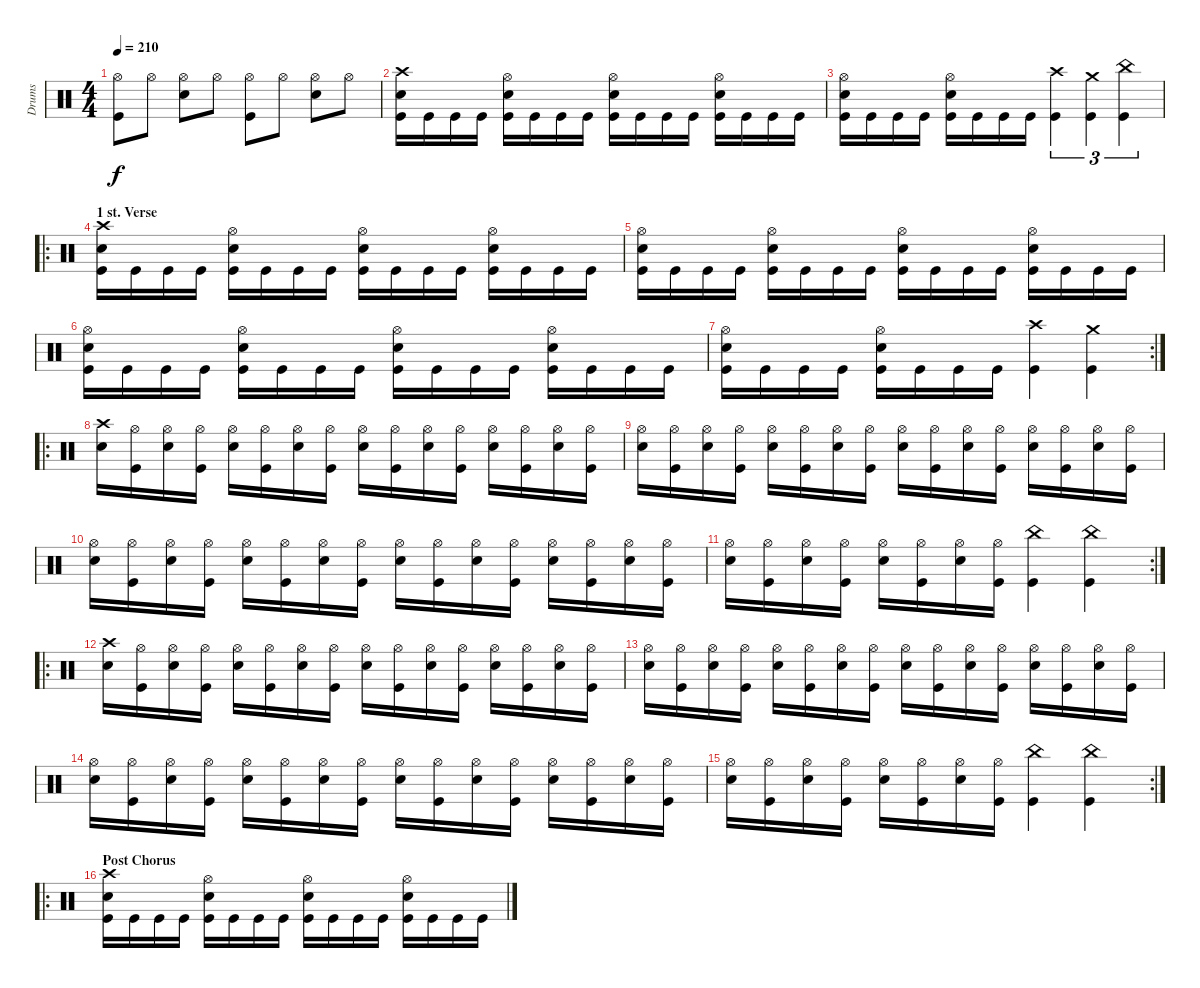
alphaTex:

\track ("Drums" "Drums") {instrument percussion}
\staff {score}
\articulation defaults
\ts (4 4)
\tempo 210
\clef neutral
\ks c
("Hi-Hat (open)" "Kick (hit)").8{dy f} "Hi-Hat (open)".8 ("Hi-Hat (open)" "Snare (hit) 2").8 "Hi-Hat (open)".8 ("Hi-Hat (open)" "Kick (hit)").8 "Hi-Hat (open)".8 ("Hi-Hat (open)" "Snare (hit) 2").8 "Hi-Hat (open)".8 |
("Crash high (hit)" "Snare (hit) 2" "Kick (hit)").16 "Kick (hit)".16 "Kick (hit)".16 "Kick (hit)".16 ("Hi-Hat (open)" "Snare (hit) 2" "Kick (hit)").16 "Kick (hit)".16 "Kick (hit)".16 "Kick (hit)".16 ("Hi-Hat (open)" "Snare (hit) 2" "Kick (hit)").16 "Kick (hit)".16 "Kick (hit)".16 "Kick (hit)".16 ("Hi-Hat (open)" "Snare (hit) 2" "Kick (hit)").16 "Kick (hit)".16 "Kick (hit)".16 "Kick (hit)".16 |
("Hi-Hat (open)" "Snare (hit) 2" "Kick (hit)").16 "Kick (hit)".16 "Kick (hit)".16 "Kick (hit)".16 ("Hi-Hat (open)" "Snare (hit) 2" "Kick (hit)").16 "Kick (hit)".16 "Kick (hit)".16 "Kick (hit)".16 ("Crash high (hit)" "Kick (hit)").4{tu (3 2)} ("Crash medium (hit)" "Kick (hit)").4{tu (3 2)} ("China (hit)" "Kick (hit)").4{tu (3 2)} |
\ro
\section ("" "1 st. Verse")
("Crash high (hit)" "Snare (hit) 2" "Kick (hit)").16 "Kick (hit)".16 "Kick (hit)".16 "Kick (hit)".16 ("Hi-Hat (open)" "Snare (hit) 2" "Kick (hit)").16 "Kick (hit)".16 "Kick (hit)".16 "Kick (hit)".16 ("Hi-Hat (open)" "Snare (hit) 2" "Kick (hit)").16 "Kick (hit)".16 "Kick (hit)".16 "Kick (hit)".16 ("Hi-Hat (open)" "Snare (hit) 2" "Kick (hit)").16 "Kick (hit)".16 "Kick (hit)".16 "Kick (hit)".16 |
("Hi-Hat (open)" "Snare (hit) 2" "Kick (hit)").16 "Kick (hit)".16 "Kick (hit)".16 "Kick (hit)".16 ("Hi-Hat (open)" "Snare (hit) 2" "Kick (hit)").16 "Kick (hit)".16 "Kick (hit)".16 "Kick (hit)".16 ("Hi-Hat (open)" "Snare (hit) 2" "Kick (hit)").16 "Kick (hit)".16 "Kick (hit)".16 "Kick (hit)".16 ("Hi-Hat (open)" "Snare (hit) 2" "Kick (hit)").16 "Kick (hit)".16 "Kick (hit)".16 "Kick (hit)".16 |
("Hi-Hat (open)" "Snare (hit) 2" "Kick (hit)").16 "Kick (hit)".16 "Kick (hit)".16 "Kick (hit)".16 ("Hi-Hat (open)" "Snare (hit) 2" "Kick (hit)").16 "Kick (hit)".16 "Kick (hit)".16 "Kick (hit)".16 ("Hi-Hat (open)" "Snare (hit) 2" "Kick (hit)").16 "Kick (hit)".16 "Kick (hit)".16 "Kick (hit)".16 ("Hi-Hat (open)" "Snare (hit) 2" "Kick (hit)").16 "Kick (hit)".16 "Kick (hit)".16 "Kick (hit)".16 |
\rc 2
("Hi-Hat (open)" "Snare (hit) 2" "Kick (hit)").16 "Kick (hit)".16 "Kick (hit)".16 "Kick (hit)".16 ("Hi-Hat (open)" "Snare (hit) 2" "Kick (hit)").16 "Kick (hit)".16 "Kick (hit)".16 "Kick (hit)".16 ("Crash high (hit)" "Kick (hit)").4 ("Crash medium (hit)" "Kick (hit)").4 |
\ro
("Crash high (hit)" "Snare (hit) 2").16 ("Hi-Hat (open)" "Kick (hit)").16 ("Hi-Hat (open)" "Snare (hit) 2").16 ("Hi-Hat (open)" "Kick (hit)").16 ("Hi-Hat (open)" "Snare (hit) 2").16 ("Hi-Hat (open)" "Kick (hit)").16 ("Hi-Hat (open)" "Snare (hit) 2").16 ("Hi-Hat (open)" "Kick (hit)").16 ("Hi-Hat (open)" "Snare (hit) 2").16 ("Hi-Hat (open)" "Kick (hit)").16 ("Hi-Hat (open)" "Snare (hit) 2").16 ("Hi-Hat (open)" "Kick (hit)").16 ("Hi-Hat (open)" "Snare (hit) 2").16 ("Hi-Hat (open)" "Kick (hit)").16 ("Hi-Hat (open)" "Snare (hit) 2").16 ("Hi-Hat (open)" "Kick (hit)").16 |
("Hi-Hat (open)" "Snare (hit) 2").16 ("Hi-Hat (open)" "Kick (hit)").16 ("Hi-Hat (open)" "Snare (hit) 2").16 ("Hi-Hat (open)" "Kick (hit)").16 ("Hi-Hat (open)" "Snare (hit) 2").16 ("Hi-Hat (open)" "Kick (hit)").16 ("Hi-Hat (open)" "Snare (hit) 2").16 ("Hi-Hat (open)" "Kick (hit)").16 ("Hi-Hat (open)" "Snare (hit) 2").16 ("Hi-Hat (open)" "Kick (hit)").16 ("Hi-Hat (open)" "Snare (hit) 2").16 ("Hi-Hat (open)" "Kick (hit)").16 ("Hi-Hat (open)" "Snare (hit) 2").16 ("Hi-Hat (open)" "Kick (hit)").16 ("Hi-Hat (open)" "Snare (hit) 2").16 ("Hi-Hat (open)" "Kick (hit)").16 |
("Hi-Hat (open)" "Snare (hit) 2").16 ("Hi-Hat (open)" "Kick (hit)").16 ("Hi-Hat (open)" "Snare (hit) 2").16 ("Hi-Hat (open)" "Kick (hit)").16 ("Hi-Hat (open)" "Snare (hit) 2").16 ("Hi-Hat (open)" "Kick (hit)").16 ("Hi-Hat (open)" "Snare (hit) 2").16 ("Hi-Hat (open)" "Kick (hit)").16 ("Hi-Hat (open)" "Snare (hit) 2").16 ("Hi-Hat (open)" "Kick (hit)").16 ("Hi-Hat (open)" "Snare (hit) 2").16 ("Hi-Hat (open)" "Kick (hit)").16 ("Hi-Hat (open)" "Snare (hit) 2").16 ("Hi-Hat (open)" "Kick (hit)").16 ("Hi-Hat (open)" "Snare (hit) 2").16 ("Hi-Hat (open)" "Kick (hit)").16 |
\rc 2
("Hi-Hat (open)" "Snare (hit) 2").16 ("Hi-Hat (open)" "Kick (hit)").16 ("Hi-Hat (open)" "Snare (hit) 2").16 ("Hi-Hat (open)" "Kick (hit)").16 ("Hi-Hat (open)" "Snare (hit) 2").16 ("Hi-Hat (open)" "Kick (hit)").16 ("Hi-Hat (open)" "Snare (hit) 2").16 ("Hi-Hat (open)" "Kick (hit)").16 ("China (hit)" "Kick (hit)").4 ("China (hit)" "Kick (hit)").4 |
\ro
("Crash high (hit)" "Snare (hit) 2").16 ("Hi-Hat (open)" "Kick (hit)").16 ("Hi-Hat (open)" "Snare (hit) 2").16 ("Hi-Hat (open)" "Kick (hit)").16 ("Hi-Hat (open)" "Snare (hit) 2").16 ("Hi-Hat (open)" "Kick (hit)").16 ("Hi-Hat (open)" "Snare (hit) 2").16 ("Hi-Hat (open)" "Kick (hit)").16 ("Hi-Hat (open)" "Snare (hit) 2").16 ("Hi-Hat (open)" "Kick (hit)").16 ("Hi-Hat (open)" "Snare (hit) 2").16 ("Hi-Hat (open)" "Kick (hit)").16 ("Hi-Hat (open)" "Snare (hit) 2").16 ("Hi-Hat (open)" "Kick (hit)").16 ("Hi-Hat (open)" "Snare (hit) 2").16 ("Hi-Hat (open)" "Kick (hit)").16 |
("Hi-Hat (open)" "Snare (hit) 2").16 ("Hi-Hat (open)" "Kick (hit)").16 ("Hi-Hat (open)" "Snare (hit) 2").16 ("Hi-Hat (open)" "Kick (hit)").16 ("Hi-Hat (open)" "Snare (hit) 2").16 ("Hi-Hat (open)" "Kick (hit)").16 ("Hi-Hat (open)" "Snare (hit) 2").16 ("Hi-Hat (open)" "Kick (hit)").16 ("Hi-Hat (open)" "Snare (hit) 2").16 ("Hi-Hat (open)" "Kick (hit)").16 ("Hi-Hat (open)" "Snare (hit) 2").16 ("Hi-Hat (open)" "Kick (hit)").16 ("Hi-Hat (open)" "Snare (hit) 2").16 ("Hi-Hat (open)" "Kick (hit)").16 ("Hi-Hat (open)" "Snare (hit) 2").16 ("Hi-Hat (open)" "Kick (hit)").16 |
("Hi-Hat (open)" "Snare (hit) 2").16 ("Hi-Hat (open)" "Kick (hit)").16 ("Hi-Hat (open)" "Snare (hit) 2").16 ("Hi-Hat (open)" "Kick (hit)").16 ("Hi-Hat (open)" "Snare (hit) 2").16 ("Hi-Hat (open)" "Kick (hit)").16 ("Hi-Hat (open)" "Snare (hit) 2").16 ("Hi-Hat (open)" "Kick (hit)").16 ("Hi-Hat (open)" "Snare (hit) 2").16 ("Hi-Hat (open)" "Kick (hit)").16 ("Hi-Hat (open)" "Snare (hit) 2").16 ("Hi-Hat (open)" "Kick (hit)").16 ("Hi-Hat (open)" "Snare (hit) 2").16 ("Hi-Hat (open)" "Kick (hit)").16 ("Hi-Hat (open)" "Snare (hit) 2").16 ("Hi-Hat (open)" "Kick (hit)").16 |
\rc 2
("Hi-Hat (open)" "Snare (hit) 2").16 ("Hi-Hat (open)" "Kick (hit)").16 ("Hi-Hat (open)" "Snare (hit) 2").16 ("Hi-Hat (open)" "Kick (hit)").16 ("Hi-Hat (open)" "Snare (hit) 2").16 ("Hi-Hat (open)" "Kick (hit)").16 ("Hi-Hat (open)" "Snare (hit) 2").16 ("Hi-Hat (open)" "Kick (hit)").16 ("China (hit)" "Kick (hit)").4 ("China (hit)" "Kick (hit)").4 |
\ro
\section ("" "Post Chorus")
("Crash high (hit)" "Snare (hit) 2" "Kick (hit)").16 "Kick (hit)".16 "Kick (hit)".16 "Kick (hit)".16 ("Hi-Hat (open)" "Snare (hit) 2" "Kick (hit)").16 "Kick (hit)".16 "Kick (hit)".16 "Kick (hit)".16 ("Hi-Hat (open)" "Snare (hit) 2" "Kick (hit)").16 "Kick (hit)".16 "Kick (hit)".16 "Kick (hit)".16 ("Hi-Hat (open)" "Snare (hit) 2" "Kick (hit)").16 "Kick (hit)".16 "Kick (hit)".16 "Kick (hit)".16
